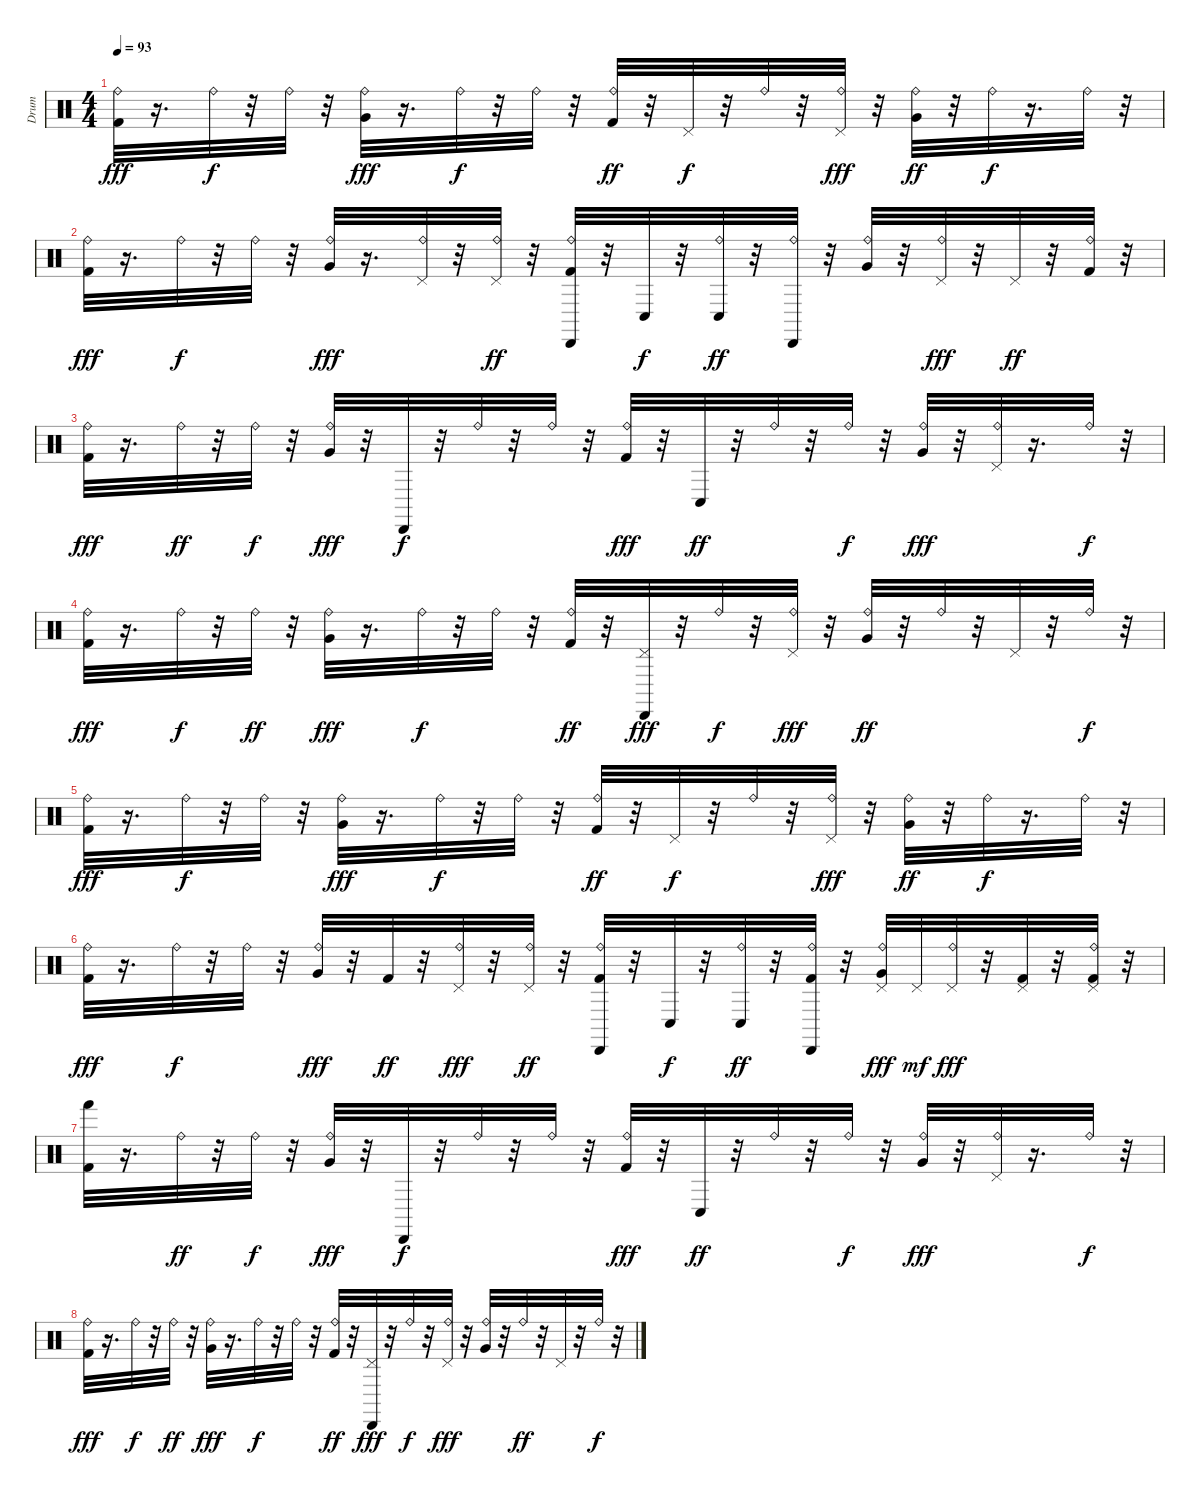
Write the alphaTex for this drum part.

\track ("Drum" "Drum") {instrument percussion}
\staff {score}
\articulation defaults
\ts (4 4)
\tempo 93
\clef neutral
\ks c
("Kick (hit) 2" "Ride (bell)").32{dy fff} r.16{d} "Ride (bell)".32{dy f} r.32 "Ride (bell)".32 r.32 ("Ride (bell)" "Very Low Tom (hit)").32{dy fff} r.16{d} "Ride (bell)".32{dy f} r.32 "Ride (bell)".32 r.32 ("Kick (hit) 2" "Ride (bell)").32{dy ff} r.32 "Pedal Hi-Hat (hit)".32{dy f} r.32 "Ride (bell)".32 r.32 ("Ride (bell)" "Pedal Hi-Hat (hit)").32{dy fff} r.32 ("Ride (bell)" "Very Low Tom (hit)").32{dy ff} r.32 "Ride (bell)".32{dy f} r.16{d} "Ride (bell)".32 r.32 |
("Kick (hit) 2" "Ride (bell)").32{dy fff} r.16{d} "Ride (bell)".32{dy f} r.32 "Ride (bell)".32 r.32 ("Ride (bell)" "Very Low Tom (hit)").32{dy fff} r.16{d} ("Ride (bell)" "Pedal Hi-Hat (hit)").32 r.32 ("Ride (bell)" "Pedal Hi-Hat (hit)").32{dy ff} r.32 ("Cabasa (hit)" "Kick (hit) 2" "Ride (bell)").32 r.32 "Conga low (hit)".32{dy f} r.32 ("Conga low (hit)" "Ride (bell)").32{dy ff} r.32 ("Cabasa (hit)" "Ride (bell)").32 r.32 ("Ride (bell)" "Very Low Tom (hit)").32 r.32 ("Ride (bell)" "Pedal Hi-Hat (hit)").32{dy fff} r.32 "Pedal Hi-Hat (hit)".32{dy ff} r.32 ("Kick (hit) 2" "Ride (bell)").32 r.32 |
("Kick (hit) 2" "Ride (bell)").32{dy fff} r.16{d} "Ride (bell)".32{dy ff} r.32 "Ride (bell)".32{dy f} r.32 ("Ride (bell)" "Very Low Tom (hit)").32{dy fff} r.32 "Cabasa (hit)".32{dy f} r.32 "Ride (bell)".32 r.32 "Ride (bell)".32 r.32 ("Kick (hit) 2" "Ride (bell)").32{dy fff} r.32 "Conga low (hit)".32{dy ff} r.32 "Ride (bell)".32 r.32 "Ride (bell)".32{dy f} r.32 ("Ride (bell)" "Very Low Tom (hit)").32{dy fff} r.32 ("Ride (bell)" "Pedal Hi-Hat (hit)").32 r.16{d} "Ride (bell)".32{dy f} r.32 |
("Kick (hit) 2" "Ride (bell)").32{dy fff} r.16{d} "Ride (bell)".32{dy f} r.32 "Ride (bell)".32{dy ff} r.32 ("Ride (bell)" "Very Low Tom (hit)").32{dy fff} r.16{d} "Ride (bell)".32{dy f} r.32 "Ride (bell)".32 r.32 ("Kick (hit) 2" "Ride (bell)").32{dy ff} r.32 ("Cabasa (hit)" "Pedal Hi-Hat (hit)").32{dy fff} r.32 "Ride (bell)".32{dy f} r.32 ("Ride (bell)" "Pedal Hi-Hat (hit)").32{dy fff} r.32 ("Ride (bell)" "Very Low Tom (hit)").32{dy ff} r.32 "Ride (bell)".32 r.32 "Pedal Hi-Hat (hit)".32 r.32 "Ride (bell)".32{dy f} r.32 |
("Kick (hit) 2" "Ride (bell)").32{dy fff} r.16{d} "Ride (bell)".32{dy f} r.32 "Ride (bell)".32 r.32 ("Ride (bell)" "Very Low Tom (hit)").32{dy fff} r.16{d} "Ride (bell)".32{dy f} r.32 "Ride (bell)".32 r.32 ("Kick (hit) 2" "Ride (bell)").32{dy ff} r.32 "Pedal Hi-Hat (hit)".32{dy f} r.32 "Ride (bell)".32 r.32 ("Ride (bell)" "Pedal Hi-Hat (hit)").32{dy fff} r.32 ("Ride (bell)" "Very Low Tom (hit)").32{dy ff} r.32 "Ride (bell)".32{dy f} r.16{d} "Ride (bell)".32 r.32 |
("Kick (hit) 2" "Ride (bell)").32{dy fff} r.16{d} "Ride (bell)".32{dy f} r.32 "Ride (bell)".32 r.32 ("Ride (bell)" "Very Low Tom (hit)").32{dy fff} r.32 "Kick (hit) 2".32{dy ff} r.32 ("Ride (bell)" "Pedal Hi-Hat (hit)").32{dy fff} r.32 ("Ride (bell)" "Pedal Hi-Hat (hit)").32{dy ff} r.32 ("Cabasa (hit)" "Kick (hit) 2" "Ride (bell)").32 r.32 "Conga low (hit)".32{dy f} r.32 ("Conga low (hit)" "Ride (bell)").32{dy ff} r.32 ("Cabasa (hit)" "Kick (hit) 2" "Ride (bell)").32 r.32 ("Ride (bell)" "Very Low Tom (hit)" "Pedal Hi-Hat (hit)").32{dy fff} "Pedal Hi-Hat (hit)".32{dy mf} ("Ride (bell)" "Pedal Hi-Hat (hit)").32{dy fff} r.32 ("Kick (hit) 2" "Pedal Hi-Hat (hit)").32 r.32 ("Kick (hit) 2" "Ride (bell)" "Pedal Hi-Hat (hit)").32 r.32 |
("Hand (hit)" "Kick (hit) 2").32 r.16{d} "Ride (bell)".32{dy ff} r.32 "Ride (bell)".32{dy f} r.32 ("Ride (bell)" "Very Low Tom (hit)").32{dy fff} r.32 "Cabasa (hit)".32{dy f} r.32 "Ride (bell)".32 r.32 "Ride (bell)".32 r.32 ("Kick (hit) 2" "Ride (bell)").32{dy fff} r.32 "Conga low (hit)".32{dy ff} r.32 "Ride (bell)".32 r.32 "Ride (bell)".32{dy f} r.32 ("Ride (bell)" "Very Low Tom (hit)").32{dy fff} r.32 ("Ride (bell)" "Pedal Hi-Hat (hit)").32 r.16{d} "Ride (bell)".32{dy f} r.32 |
("Kick (hit) 2" "Ride (bell)").32{dy fff} r.16{d} "Ride (bell)".32{dy f} r.32 "Ride (bell)".32{dy ff} r.32 ("Ride (bell)" "Very Low Tom (hit)").32{dy fff} r.16{d} "Ride (bell)".32{dy f} r.32 "Ride (bell)".32 r.32 ("Kick (hit) 2" "Ride (bell)").32{dy ff} r.32 ("Cabasa (hit)" "Pedal Hi-Hat (hit)").32{dy fff} r.32 "Ride (bell)".32{dy f} r.32 ("Ride (bell)" "Pedal Hi-Hat (hit)").32{dy fff} r.32 ("Ride (bell)" "Very Low Tom (hit)").32 r.32 "Ride (bell)".32{dy ff} r.32 "Pedal Hi-Hat (hit)".32 r.32 "Ride (bell)".32{dy f} r.32
